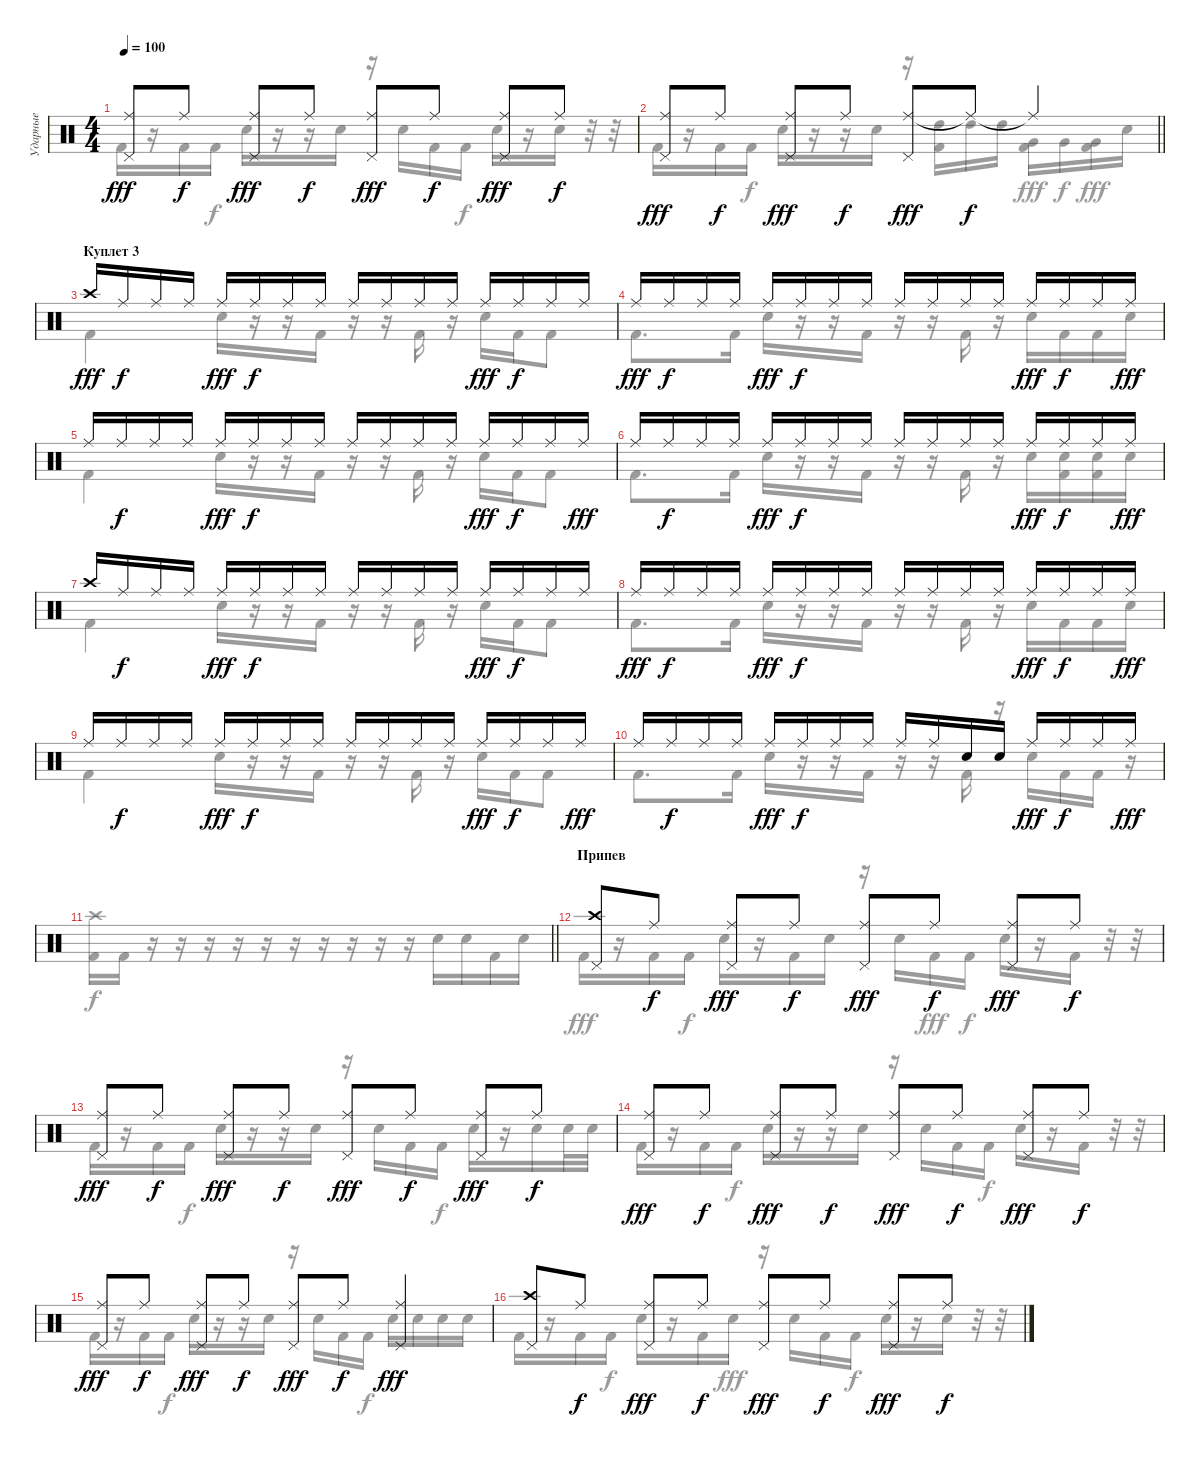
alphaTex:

\track ("Ударные" "Ударные") {instrument percussion}
\staff {score}
\articulation defaults
\voice
\ts (4 4)
\tempo 100
\clef neutral
\ks c
("Ride (middle)" "Pedal Hi-Hat (hit)").8{dy fff} "Ride (middle)".8{dy f} ("Ride (middle)" "Pedal Hi-Hat (hit)").8{dy fff} "Ride (middle)".8{dy f} ("Ride (middle)" "Pedal Hi-Hat (hit)").8{dy fff} "Ride (middle)".8{dy f} ("Ride (middle)" "Pedal Hi-Hat (hit)").8{dy fff} "Ride (middle)".8{dy f} |
\barLineRight lightlight
("Ride (middle)" "Pedal Hi-Hat (hit)").8{dy fff} "Ride (middle)".8{dy f} ("Ride (middle)" "Pedal Hi-Hat (hit)").8{dy fff} "Ride (middle)".8{dy f} ("Ride (middle)" "Pedal Hi-Hat (hit)").8{dy fff} "Ride (middle)"{t}.8{dy f} "Ride (middle)"{t}.4 |
\section ("" "Куплет 3")
"Crash high (hit)".16{dy fff} "Ride (middle)".16{dy f} "Ride (middle)".16 "Ride (middle)".16 "Ride (middle)".16{dy fff} "Ride (middle)".16{dy f} "Ride (middle)".16 "Ride (middle)".16 "Ride (middle)".16 "Ride (middle)".16 "Ride (middle)".16 "Ride (middle)".16 "Ride (middle)".16{dy fff} "Ride (middle)".16{dy f} "Ride (middle)".16 "Ride (middle)".16 |
"Ride (middle)".16{dy fff} "Ride (middle)".16{dy f} "Ride (middle)".16 "Ride (middle)".16 "Ride (middle)".16{dy fff} "Ride (middle)".16{dy f} "Ride (middle)".16 "Ride (middle)".16 "Ride (middle)".16 "Ride (middle)".16 "Ride (middle)".16 "Ride (middle)".16 "Ride (middle)".16{dy fff} "Ride (middle)".16{dy f} "Ride (middle)".16 "Ride (middle)".16{dy fff} |
"Ride (middle)".16 "Ride (middle)".16{dy f} "Ride (middle)".16 "Ride (middle)".16 "Ride (middle)".16{dy fff} "Ride (middle)".16{dy f} "Ride (middle)".16 "Ride (middle)".16 "Ride (middle)".16 "Ride (middle)".16 "Ride (middle)".16 "Ride (middle)".16 "Ride (middle)".16{dy fff} "Ride (middle)".16{dy f} "Ride (middle)".16 "Ride (middle)".16{dy fff} |
"Ride (middle)".16 "Ride (middle)".16{dy f} "Ride (middle)".16 "Ride (middle)".16 "Ride (middle)".16{dy fff} "Ride (middle)".16{dy f} "Ride (middle)".16 "Ride (middle)".16 "Ride (middle)".16 "Ride (middle)".16 "Ride (middle)".16 "Ride (middle)".16 "Ride (middle)".16{dy fff} "Ride (middle)".16{dy f} "Ride (middle)".16 "Ride (middle)".16{dy fff} |
"Crash high (hit)".16 "Ride (middle)".16{dy f} "Ride (middle)".16 "Ride (middle)".16 "Ride (middle)".16{dy fff} "Ride (middle)".16{dy f} "Ride (middle)".16 "Ride (middle)".16 "Ride (middle)".16 "Ride (middle)".16 "Ride (middle)".16 "Ride (middle)".16 "Ride (middle)".16{dy fff} "Ride (middle)".16{dy f} "Ride (middle)".16 "Ride (middle)".16 |
"Ride (middle)".16{dy fff} "Ride (middle)".16{dy f} "Ride (middle)".16 "Ride (middle)".16 "Ride (middle)".16{dy fff} "Ride (middle)".16{dy f} "Ride (middle)".16 "Ride (middle)".16 "Ride (middle)".16 "Ride (middle)".16 "Ride (middle)".16 "Ride (middle)".16 "Ride (middle)".16{dy fff} "Ride (middle)".16{dy f} "Ride (middle)".16 "Ride (middle)".16{dy fff} |
"Ride (middle)".16 "Ride (middle)".16{dy f} "Ride (middle)".16 "Ride (middle)".16 "Ride (middle)".16{dy fff} "Ride (middle)".16{dy f} "Ride (middle)".16 "Ride (middle)".16 "Ride (middle)".16 "Ride (middle)".16 "Ride (middle)".16 "Ride (middle)".16 "Ride (middle)".16{dy fff} "Ride (middle)".16{dy f} "Ride (middle)".16 "Ride (middle)".16{dy fff} |
"Ride (middle)".16 "Ride (middle)".16{dy f} "Ride (middle)".16 "Ride (middle)".16 "Ride (middle)".16{dy fff} "Ride (middle)".16{dy f} "Ride (middle)".16 "Ride (middle)".16 "Ride (middle)".16 "Ride (middle)".16 "Snare (hit)".16 "Snare (hit)".16 "Ride (middle)".16{dy fff} "Ride (middle)".16{dy f} "Ride (middle)".16 "Ride (middle)".16{dy fff} |
\barLineRight lightlight
|
\section ("" "Припев")
("Crash high (hit)" "Pedal Hi-Hat (hit)").8 "Ride (middle)".8{dy f} ("Ride (middle)" "Pedal Hi-Hat (hit)").8{dy fff} "Ride (middle)".8{dy f} ("Ride (middle)" "Pedal Hi-Hat (hit)").8{dy fff} "Ride (middle)".8{dy f} ("Ride (middle)" "Pedal Hi-Hat (hit)").8{dy fff} "Ride (middle)".8{dy f} |
("Ride (middle)" "Pedal Hi-Hat (hit)").8{dy fff} "Ride (middle)".8{dy f} ("Ride (middle)" "Pedal Hi-Hat (hit)").8{dy fff} "Ride (middle)".8{dy f} ("Ride (middle)" "Pedal Hi-Hat (hit)").8{dy fff} "Ride (middle)".8{dy f} ("Ride (middle)" "Pedal Hi-Hat (hit)").8{dy fff} "Ride (middle)".8{dy f} |
("Ride (middle)" "Pedal Hi-Hat (hit)").8{dy fff} "Ride (middle)".8{dy f} ("Ride (middle)" "Pedal Hi-Hat (hit)").8{dy fff} "Ride (middle)".8{dy f} ("Ride (middle)" "Pedal Hi-Hat (hit)").8{dy fff} "Ride (middle)".8{dy f} ("Ride (middle)" "Pedal Hi-Hat (hit)").8{dy fff} "Ride (middle)".8{dy f} |
("Ride (middle)" "Pedal Hi-Hat (hit)").8{dy fff} "Ride (middle)".8{dy f} ("Ride (middle)" "Pedal Hi-Hat (hit)").8{dy fff} "Ride (middle)".8{dy f} ("Ride (middle)" "Pedal Hi-Hat (hit)").8{dy fff} "Ride (middle)".8{dy f} ("Ride (middle)" "Pedal Hi-Hat (hit)").4{dy fff} |
("Crash high (hit)" "Pedal Hi-Hat (hit)").8 "Ride (middle)".8{dy f} ("Ride (middle)" "Pedal Hi-Hat (hit)").8{dy fff} "Ride (middle)".8{dy f} ("Ride (middle)" "Pedal Hi-Hat (hit)").8{dy fff} "Ride (middle)".8{dy f} ("Ride (middle)" "Pedal Hi-Hat (hit)").8{dy fff} "Ride (middle)".8{dy f}
\voice
\clef neutral
\ottava regular
\simile none
\ks c "Kick (hit) 2".16{dy fff}
r.16 "Kick (hit) 2".16 "Kick (hit) 2".16{dy f} "Snare (hit) 2".16{dy fff} r.16 r.16 "Snare (hit) 2".16 r.16 "Snare (hit) 2".16 "Kick (hit) 2".16 "Kick (hit) 2".16{dy f} "Snare (hit) 2".16{dy fff} r.16 "Snare (hit) 2".16 r.32 r.32 |
\barLineRight lightlight "Kick (hit) 2".16
r.16 "Kick (hit) 2".16 "Kick (hit) 2".16{dy f} "Snare (hit) 2".16{dy fff} r.16 r.16 "Snare (hit) 2".16 r.16 ("High Tom (hit)" "Kick (hit) 2").16 "High Tom (hit)".16{dy f} "High Tom (hit)".16 ("Very Low Tom (hit)" "Kick (hit) 2").16{dy fff} "Very Low Tom (hit)".16{dy f} ("Very Low Tom (hit)" "Kick (hit) 2").16{dy fff} "Snare (hit) 2".16 |
"Kick (hit) 2".4 "Snare (hit) 2".16 r.16 r.16 "Kick (hit) 2".16 r.16 r.16 "Kick (hit) 2".16 r.16 "Snare (hit) 2".16 "Kick (hit) 2".16 "Kick (hit) 2".8 |
"Kick (hit) 2".8{d} "Kick (hit) 2".16 "Snare (hit) 2".16 r.16 r.16 "Kick (hit) 2".16 r.16 r.16 "Kick (hit) 2".16 r.16 "Snare (hit) 2".16 "Kick (hit) 2".16 "Kick (hit) 2".16 "Snare (hit) 2".16 |
"Kick (hit) 2".4 "Snare (hit) 2".16 r.16 r.16 "Kick (hit) 2".16 r.16 r.16 "Kick (hit) 2".16 r.16 "Snare (hit) 2".16 "Kick (hit) 2".16 "Kick (hit) 2".8 |
"Kick (hit) 2".8{d} "Kick (hit) 2".16 "Snare (hit) 2".16 r.16 r.16 "Kick (hit) 2".16 r.16 r.16 "Kick (hit) 2".16 r.16 "Snare (hit) 2".16 ("Snare (hit) 2" "Kick (hit) 2").16 ("Snare (hit) 2" "Kick (hit) 2").16 "Snare (hit) 2".16 |
"Kick (hit) 2".4 "Snare (hit) 2".16 r.16 r.16 "Kick (hit) 2".16 r.16 r.16 "Kick (hit) 2".16 r.16 "Snare (hit) 2".16 "Kick (hit) 2".16 "Kick (hit) 2".8 |
"Kick (hit) 2".8{d} "Kick (hit) 2".16 "Snare (hit) 2".16 r.16 r.16 "Kick (hit) 2".16 r.16 r.16 "Kick (hit) 2".16 r.16 "Snare (hit) 2".16 "Kick (hit) 2".16 "Kick (hit) 2".16 "Snare (hit) 2".16 |
"Kick (hit) 2".4 "Snare (hit) 2".16 r.16 r.16 "Kick (hit) 2".16 r.16 r.16 "Kick (hit) 2".16 r.16 "Snare (hit) 2".16 "Kick (hit) 2".16 "Kick (hit) 2".8 |
"Kick (hit) 2".8{d} "Kick (hit) 2".16 "Snare (hit) 2".16 r.16 r.16 "Kick (hit) 2".16 r.16 r.16 "Kick (hit) 2".16 r.16 "Snare (hit) 2".16 "Kick (hit) 2".16 "Kick (hit) 2".16 r.16 |
\barLineRight lightlight
("Crash high (hit)" "Kick (hit) 2").16{dy f} "Kick (hit) 2".16 r.16 r.16 r.16 r.16 r.16 r.16 r.16 r.16 r.16 r.16 "Snare (hit) 2".16 "Snare (hit) 2".16 "Kick (hit) 2".16 "Snare (hit) 2".16 |
"Kick (hit) 2".16{dy fff} r.16 "Kick (hit) 2".16 "Kick (hit) 2".16{dy f} "Snare (hit) 2".16{dy fff} r.16 "Kick (hit) 2".16{dy f} "Snare (hit) 2".16 r.16 "Snare (hit) 2".16 "Kick (hit) 2".16{dy fff} "Kick (hit) 2".16{dy f} "Snare (hit) 2".16{dy fff} r.16 "Kick (hit) 2".16{dy f} r.32 r.32 |
"Kick (hit) 2".16{dy fff} r.16 "Kick (hit) 2".16 "Kick (hit) 2".16{dy f} "Snare (hit) 2".16{dy fff} r.16 r.16 "Snare (hit) 2".16 r.16 "Snare (hit) 2".16 "Kick (hit) 2".16 "Kick (hit) 2".16{dy f} "Snare (hit) 2".16{dy fff} r.16 "Snare (hit) 2".16 "Snare (hit) 2".32 "Snare (hit) 2".32 |
"Kick (hit) 2".16 r.16 "Kick (hit) 2".16 "Kick (hit) 2".16{dy f} "Snare (hit) 2".16{dy fff} r.16 r.16 "Snare (hit) 2".16 r.16 "Snare (hit) 2".16 "Kick (hit) 2".16 "Kick (hit) 2".16{dy f} "Snare (hit) 2".16{dy fff} r.16 "Kick (hit) 2".16{dy f} r.32 r.32 |
"Kick (hit) 2".16{dy fff} r.16 "Kick (hit) 2".16 "Kick (hit) 2".16{dy f} "Snare (hit) 2".16{dy fff} r.16 r.16 "Snare (hit) 2".16 r.16 "Snare (hit) 2".16 "Kick (hit) 2".16 "Kick (hit) 2".16{dy f} "Snare (hit) 2".16{dy fff} "Snare (hit) 2".16 "Snare (hit) 2".16 "Snare (hit) 2".16 |
"Kick (hit) 2".16 r.16 "Kick (hit) 2".16 "Kick (hit) 2".16{dy f} "Snare (hit) 2".16{dy fff} r.16 "Kick (hit) 2".16{dy f} "Snare (hit) 2".16{dy fff} r.16 "Snare (hit) 2".16 "Kick (hit) 2".16 "Kick (hit) 2".16{dy f} "Snare (hit) 2".16{dy fff} r.16 "Snare (hit) 2".16 r.32 r.32
